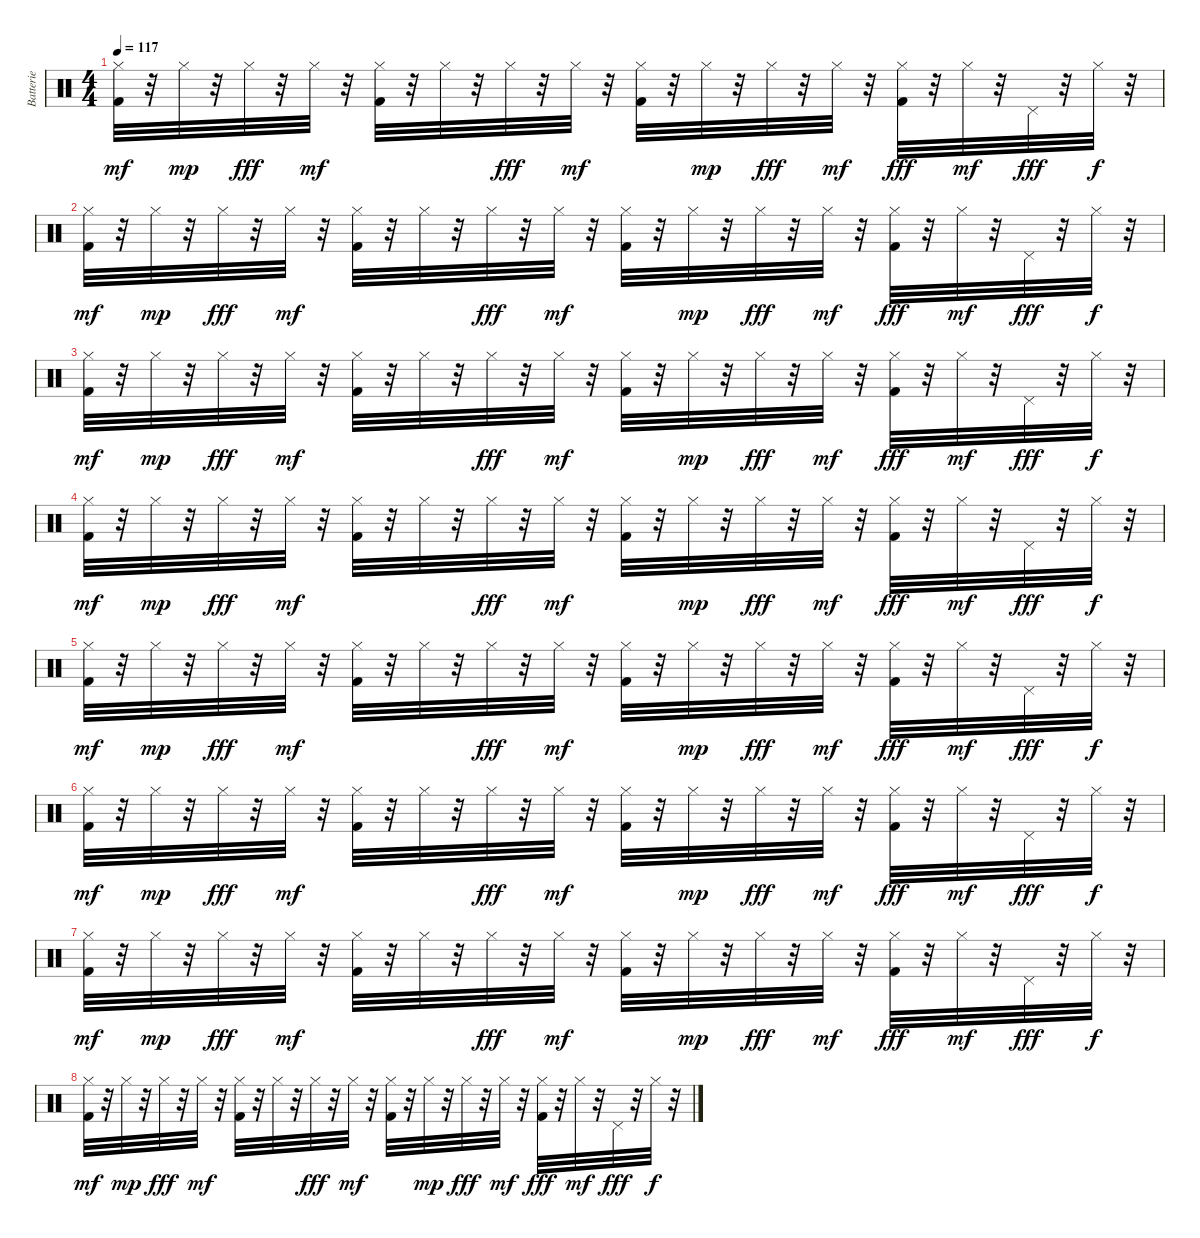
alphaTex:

\track ("Batterie" "Batterie") {instrument percussion}
\staff {score}
\articulation defaults
\ts (4 4)
\tempo 117
\clef neutral
\ks c
("Kick (hit) 2" "Hi-Hat (closed)").32{dy mf} r.32 "Hi-Hat (closed)".32{dy mp} r.32 "Hi-Hat (closed)".32{dy fff} r.32 "Hi-Hat (closed)".32{dy mf} r.32 ("Kick (hit) 2" "Hi-Hat (closed)").32 r.32 "Hi-Hat (closed)".32 r.32 "Hi-Hat (closed)".32{dy fff} r.32 "Hi-Hat (closed)".32{dy mf} r.32 ("Kick (hit) 2" "Hi-Hat (closed)").32 r.32 "Hi-Hat (closed)".32{dy mp} r.32 "Hi-Hat (closed)".32{dy fff} r.32 "Hi-Hat (closed)".32{dy mf} r.32 ("Kick (hit) 2" "Hi-Hat (closed)").32{dy fff} r.32 "Hi-Hat (closed)".32{dy mf} r.32 "Pedal Hi-Hat (hit)".32{dy fff} r.32 "Hi-Hat (closed)".32{dy f} r.32 |
("Kick (hit) 2" "Hi-Hat (closed)").32{dy mf} r.32 "Hi-Hat (closed)".32{dy mp} r.32 "Hi-Hat (closed)".32{dy fff} r.32 "Hi-Hat (closed)".32{dy mf} r.32 ("Kick (hit) 2" "Hi-Hat (closed)").32 r.32 "Hi-Hat (closed)".32 r.32 "Hi-Hat (closed)".32{dy fff} r.32 "Hi-Hat (closed)".32{dy mf} r.32 ("Kick (hit) 2" "Hi-Hat (closed)").32 r.32 "Hi-Hat (closed)".32{dy mp} r.32 "Hi-Hat (closed)".32{dy fff} r.32 "Hi-Hat (closed)".32{dy mf} r.32 ("Kick (hit) 2" "Hi-Hat (closed)").32{dy fff} r.32 "Hi-Hat (closed)".32{dy mf} r.32 "Pedal Hi-Hat (hit)".32{dy fff} r.32 "Hi-Hat (closed)".32{dy f} r.32 |
("Kick (hit) 2" "Hi-Hat (closed)").32{dy mf} r.32 "Hi-Hat (closed)".32{dy mp} r.32 "Hi-Hat (closed)".32{dy fff} r.32 "Hi-Hat (closed)".32{dy mf} r.32 ("Kick (hit) 2" "Hi-Hat (closed)").32 r.32 "Hi-Hat (closed)".32 r.32 "Hi-Hat (closed)".32{dy fff} r.32 "Hi-Hat (closed)".32{dy mf} r.32 ("Kick (hit) 2" "Hi-Hat (closed)").32 r.32 "Hi-Hat (closed)".32{dy mp} r.32 "Hi-Hat (closed)".32{dy fff} r.32 "Hi-Hat (closed)".32{dy mf} r.32 ("Kick (hit) 2" "Hi-Hat (closed)").32{dy fff} r.32 "Hi-Hat (closed)".32{dy mf} r.32 "Pedal Hi-Hat (hit)".32{dy fff} r.32 "Hi-Hat (closed)".32{dy f} r.32 |
("Kick (hit) 2" "Hi-Hat (closed)").32{dy mf} r.32 "Hi-Hat (closed)".32{dy mp} r.32 "Hi-Hat (closed)".32{dy fff} r.32 "Hi-Hat (closed)".32{dy mf} r.32 ("Kick (hit) 2" "Hi-Hat (closed)").32 r.32 "Hi-Hat (closed)".32 r.32 "Hi-Hat (closed)".32{dy fff} r.32 "Hi-Hat (closed)".32{dy mf} r.32 ("Kick (hit) 2" "Hi-Hat (closed)").32 r.32 "Hi-Hat (closed)".32{dy mp} r.32 "Hi-Hat (closed)".32{dy fff} r.32 "Hi-Hat (closed)".32{dy mf} r.32 ("Kick (hit) 2" "Hi-Hat (closed)").32{dy fff} r.32 "Hi-Hat (closed)".32{dy mf} r.32 "Pedal Hi-Hat (hit)".32{dy fff} r.32 "Hi-Hat (closed)".32{dy f} r.32 |
("Kick (hit) 2" "Hi-Hat (closed)").32{dy mf} r.32 "Hi-Hat (closed)".32{dy mp} r.32 "Hi-Hat (closed)".32{dy fff} r.32 "Hi-Hat (closed)".32{dy mf} r.32 ("Kick (hit) 2" "Hi-Hat (closed)").32 r.32 "Hi-Hat (closed)".32 r.32 "Hi-Hat (closed)".32{dy fff} r.32 "Hi-Hat (closed)".32{dy mf} r.32 ("Kick (hit) 2" "Hi-Hat (closed)").32 r.32 "Hi-Hat (closed)".32{dy mp} r.32 "Hi-Hat (closed)".32{dy fff} r.32 "Hi-Hat (closed)".32{dy mf} r.32 ("Kick (hit) 2" "Hi-Hat (closed)").32{dy fff} r.32 "Hi-Hat (closed)".32{dy mf} r.32 "Pedal Hi-Hat (hit)".32{dy fff} r.32 "Hi-Hat (closed)".32{dy f} r.32 |
("Kick (hit) 2" "Hi-Hat (closed)").32{dy mf} r.32 "Hi-Hat (closed)".32{dy mp} r.32 "Hi-Hat (closed)".32{dy fff} r.32 "Hi-Hat (closed)".32{dy mf} r.32 ("Kick (hit) 2" "Hi-Hat (closed)").32 r.32 "Hi-Hat (closed)".32 r.32 "Hi-Hat (closed)".32{dy fff} r.32 "Hi-Hat (closed)".32{dy mf} r.32 ("Kick (hit) 2" "Hi-Hat (closed)").32 r.32 "Hi-Hat (closed)".32{dy mp} r.32 "Hi-Hat (closed)".32{dy fff} r.32 "Hi-Hat (closed)".32{dy mf} r.32 ("Kick (hit) 2" "Hi-Hat (closed)").32{dy fff} r.32 "Hi-Hat (closed)".32{dy mf} r.32 "Pedal Hi-Hat (hit)".32{dy fff} r.32 "Hi-Hat (closed)".32{dy f} r.32 |
("Kick (hit) 2" "Hi-Hat (closed)").32{dy mf} r.32 "Hi-Hat (closed)".32{dy mp} r.32 "Hi-Hat (closed)".32{dy fff} r.32 "Hi-Hat (closed)".32{dy mf} r.32 ("Kick (hit) 2" "Hi-Hat (closed)").32 r.32 "Hi-Hat (closed)".32 r.32 "Hi-Hat (closed)".32{dy fff} r.32 "Hi-Hat (closed)".32{dy mf} r.32 ("Kick (hit) 2" "Hi-Hat (closed)").32 r.32 "Hi-Hat (closed)".32{dy mp} r.32 "Hi-Hat (closed)".32{dy fff} r.32 "Hi-Hat (closed)".32{dy mf} r.32 ("Kick (hit) 2" "Hi-Hat (closed)").32{dy fff} r.32 "Hi-Hat (closed)".32{dy mf} r.32 "Pedal Hi-Hat (hit)".32{dy fff} r.32 "Hi-Hat (closed)".32{dy f} r.32 |
("Kick (hit) 2" "Hi-Hat (closed)").32{dy mf} r.32 "Hi-Hat (closed)".32{dy mp} r.32 "Hi-Hat (closed)".32{dy fff} r.32 "Hi-Hat (closed)".32{dy mf} r.32 ("Kick (hit) 2" "Hi-Hat (closed)").32 r.32 "Hi-Hat (closed)".32 r.32 "Hi-Hat (closed)".32{dy fff} r.32 "Hi-Hat (closed)".32{dy mf} r.32 ("Kick (hit) 2" "Hi-Hat (closed)").32 r.32 "Hi-Hat (closed)".32{dy mp} r.32 "Hi-Hat (closed)".32{dy fff} r.32 "Hi-Hat (closed)".32{dy mf} r.32 ("Kick (hit) 2" "Hi-Hat (closed)").32{dy fff} r.32 "Hi-Hat (closed)".32{dy mf} r.32 "Pedal Hi-Hat (hit)".32{dy fff} r.32 "Hi-Hat (closed)".32{dy f} r.32
